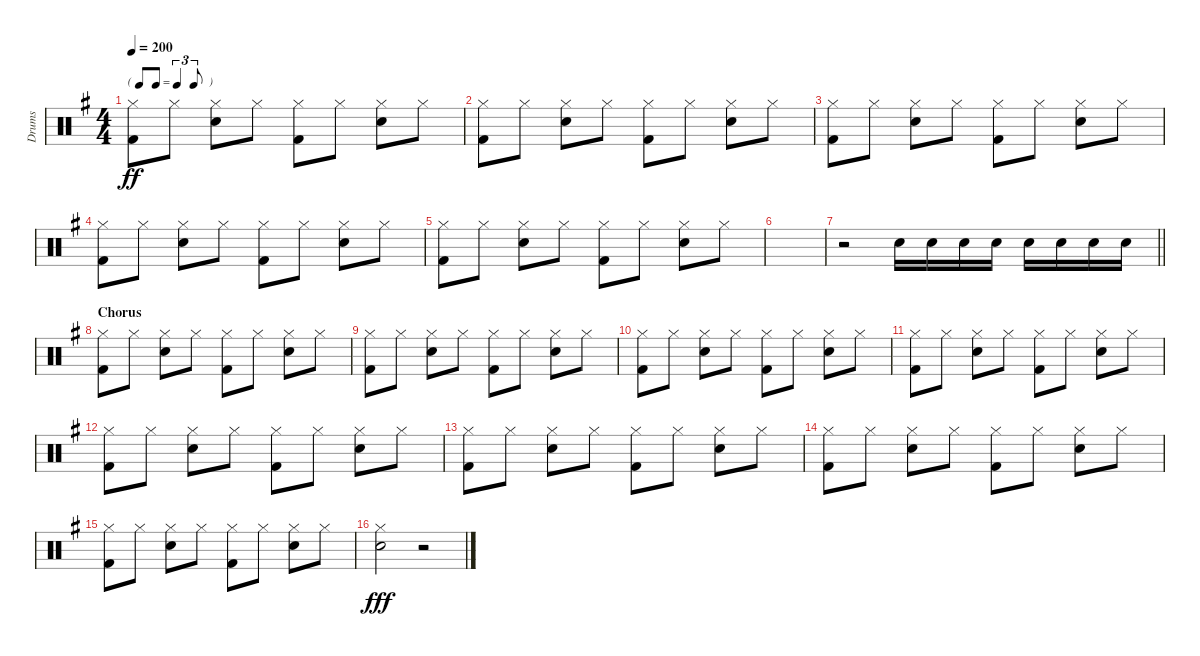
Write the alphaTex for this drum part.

\track ("Drums" "Drums") {instrument percussion}
\staff {score}
\articulation defaults
\ts (4 4)
\tf triplet8th
\tempo 200
\clef neutral
\ks g
("Hi-Hat (closed)" "Kick (hit) 2").8{dy ff} "Hi-Hat (closed)".8 ("Hi-Hat (closed)" "Snare (hit) 2").8 "Hi-Hat (closed)".8 ("Hi-Hat (closed)" "Kick (hit) 2").8 "Hi-Hat (closed)".8 ("Hi-Hat (closed)" "Snare (hit) 2").8 "Hi-Hat (closed)".8 |
("Hi-Hat (closed)" "Kick (hit) 2").8 "Hi-Hat (closed)".8 ("Hi-Hat (closed)" "Snare (hit) 2").8 "Hi-Hat (closed)".8 ("Hi-Hat (closed)" "Kick (hit) 2").8 "Hi-Hat (closed)".8 ("Hi-Hat (closed)" "Snare (hit) 2").8 "Hi-Hat (closed)".8 |
("Hi-Hat (closed)" "Kick (hit) 2").8 "Hi-Hat (closed)".8 ("Hi-Hat (closed)" "Snare (hit) 2").8 "Hi-Hat (closed)".8 ("Hi-Hat (closed)" "Kick (hit) 2").8 "Hi-Hat (closed)".8 ("Hi-Hat (closed)" "Snare (hit) 2").8 "Hi-Hat (closed)".8 |
("Hi-Hat (closed)" "Kick (hit) 2").8 "Hi-Hat (closed)".8 ("Hi-Hat (closed)" "Snare (hit) 2").8 "Hi-Hat (closed)".8 ("Hi-Hat (closed)" "Kick (hit) 2").8 "Hi-Hat (closed)".8 ("Hi-Hat (closed)" "Snare (hit) 2").8 "Hi-Hat (closed)".8 |
("Hi-Hat (closed)" "Kick (hit) 2").8 "Hi-Hat (closed)".8 ("Hi-Hat (closed)" "Snare (hit) 2").8 "Hi-Hat (closed)".8 ("Hi-Hat (closed)" "Kick (hit) 2").8 "Hi-Hat (closed)".8 ("Hi-Hat (closed)" "Snare (hit) 2").8 "Hi-Hat (closed)".8 |
|
\barLineRight lightlight
r.2 "Snare (hit) 2".16 "Snare (hit) 2".16 "Snare (hit) 2".16 "Snare (hit) 2".16 "Snare (hit) 2".16 "Snare (hit) 2".16 "Snare (hit) 2".16 "Snare (hit) 2".16 |
\section ("" "Chorus")
("Hi-Hat (closed)" "Kick (hit) 2").8 "Hi-Hat (closed)".8 ("Hi-Hat (closed)" "Snare (hit) 2").8 "Hi-Hat (closed)".8 ("Hi-Hat (closed)" "Kick (hit) 2").8 "Hi-Hat (closed)".8 ("Hi-Hat (closed)" "Snare (hit) 2").8 "Hi-Hat (closed)".8 |
("Hi-Hat (closed)" "Kick (hit) 2").8 "Hi-Hat (closed)".8 ("Hi-Hat (closed)" "Snare (hit) 2").8 "Hi-Hat (closed)".8 ("Hi-Hat (closed)" "Kick (hit) 2").8 "Hi-Hat (closed)".8 ("Hi-Hat (closed)" "Snare (hit) 2").8 "Hi-Hat (closed)".8 |
("Hi-Hat (closed)" "Kick (hit) 2").8 "Hi-Hat (closed)".8 ("Hi-Hat (closed)" "Snare (hit) 2").8 "Hi-Hat (closed)".8 ("Hi-Hat (closed)" "Kick (hit) 2").8 "Hi-Hat (closed)".8 ("Hi-Hat (closed)" "Snare (hit) 2").8 "Hi-Hat (closed)".8 |
("Hi-Hat (closed)" "Kick (hit) 2").8 "Hi-Hat (closed)".8 ("Hi-Hat (closed)" "Snare (hit) 2").8 "Hi-Hat (closed)".8 ("Hi-Hat (closed)" "Kick (hit) 2").8 "Hi-Hat (closed)".8 ("Hi-Hat (closed)" "Snare (hit) 2").8 "Hi-Hat (closed)".8 |
("Hi-Hat (closed)" "Kick (hit) 2").8 "Hi-Hat (closed)".8 ("Hi-Hat (closed)" "Snare (hit) 2").8 "Hi-Hat (closed)".8 ("Hi-Hat (closed)" "Kick (hit) 2").8 "Hi-Hat (closed)".8 ("Hi-Hat (closed)" "Snare (hit) 2").8 "Hi-Hat (closed)".8 |
("Hi-Hat (closed)" "Kick (hit) 2").8 "Hi-Hat (closed)".8 ("Hi-Hat (closed)" "Snare (hit) 2").8 "Hi-Hat (closed)".8 ("Hi-Hat (closed)" "Kick (hit) 2").8 "Hi-Hat (closed)".8 ("Hi-Hat (closed)" "Snare (hit) 2").8 "Hi-Hat (closed)".8 |
("Hi-Hat (closed)" "Kick (hit) 2").8 "Hi-Hat (closed)".8 ("Hi-Hat (closed)" "Snare (hit) 2").8 "Hi-Hat (closed)".8 ("Hi-Hat (closed)" "Kick (hit) 2").8 "Hi-Hat (closed)".8 ("Hi-Hat (closed)" "Snare (hit) 2").8 "Hi-Hat (closed)".8 |
("Hi-Hat (closed)" "Kick (hit) 2").8 "Hi-Hat (closed)".8 ("Hi-Hat (closed)" "Snare (hit) 2").8 "Hi-Hat (closed)".8 ("Hi-Hat (closed)" "Kick (hit) 2").8 "Hi-Hat (closed)".8 ("Hi-Hat (closed)" "Snare (hit) 2").8 "Hi-Hat (closed)".8 |
("Snare (hit) 2" "Hi-Hat (closed)").2{dy fff} r.2
